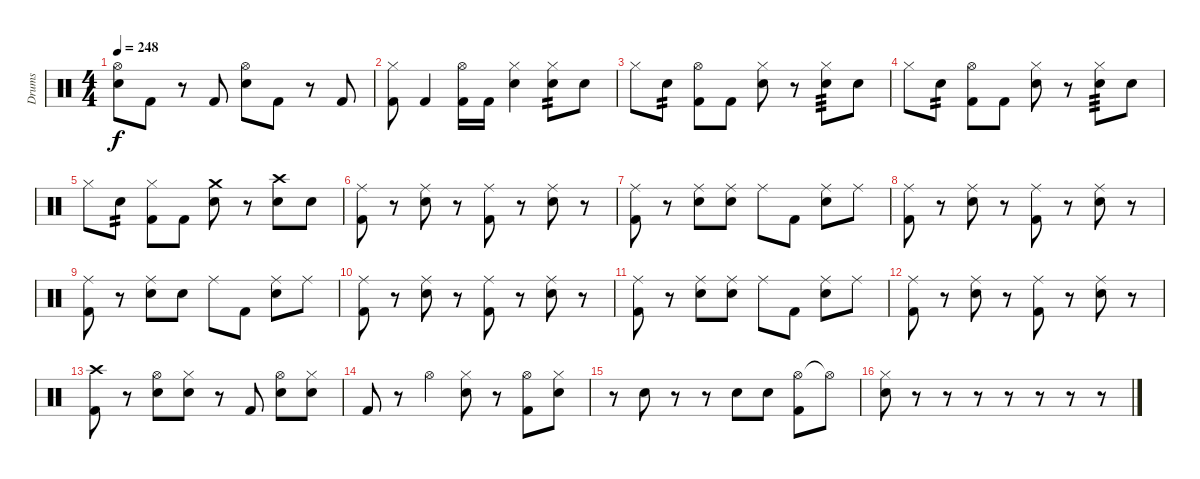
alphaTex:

\track ("Drums" "Drums") {instrument percussion}
\staff {score}
\articulation defaults
\ts (4 4)
\tempo 248
\clef neutral
\ks c
("Electric Snare (hit)" "Hi-Hat (open)").8{dy f} "Kick (hit) 2".8 r.8 "Kick (hit) 2".8 ("Electric Snare (hit)" "Hi-Hat (open)").8 "Kick (hit) 2".8 r.8 "Kick (hit) 2".8 |
("Hi-Hat (closed)" "Kick (hit) 2").8 "Kick (hit) 2".4 ("Hi-Hat (open)" "Kick (hit) 2").16 "Kick (hit) 2".16 ("Hi-Hat (closed)" "Electric Snare (hit)").4 ("Hi-Hat (closed)" "Electric Snare (hit)").8{tp 2} "Electric Snare (hit)".8 |
"Hi-Hat (closed)".8 "Electric Snare (hit)".8{tp 2} ("Hi-Hat (open)" "Kick (hit) 2").8 "Kick (hit) 2".8 ("Hi-Hat (closed)" "Electric Snare (hit)").8 r.8 ("Hi-Hat (closed)" "Electric Snare (hit)").8{tp 3} "Electric Snare (hit)".8 |
"Hi-Hat (closed)".8 "Electric Snare (hit)".8{tp 2} ("Hi-Hat (open)" "Kick (hit) 2").8 "Kick (hit) 2".8 ("Hi-Hat (closed)" "Electric Snare (hit)").8 r.8 ("Hi-Hat (closed)" "Electric Snare (hit)").8{tp 3} "Electric Snare (hit)".8 |
"Hi-Hat (closed)".8 "Electric Snare (hit)".8{tp 2} ("Hi-Hat (closed)" "Kick (hit) 2").8 "Kick (hit) 2".8 ("Crash medium (hit)" "Electric Snare (hit)").8 r.8 ("Crash high (hit)" "Electric Snare (hit)").8 "Electric Snare (hit)".8 |
("Ride (middle)" "Kick (hit) 2").8 r.8 ("Ride (middle)" "Electric Snare (hit)").8 r.8 ("Ride (middle)" "Kick (hit) 2").8 r.8 ("Ride (middle)" "Electric Snare (hit)").8 r.8 |
("Ride (middle)" "Kick (hit) 2").8 r.8 ("Ride (middle)" "Electric Snare (hit)").8 ("Ride (middle)" "Electric Snare (hit)").8 "Ride (middle)".8 "Kick (hit) 2".8 ("Ride (middle)" "Electric Snare (hit)").8 "Ride (middle)".8 |
("Ride (middle)" "Kick (hit) 2").8 r.8 ("Ride (middle)" "Electric Snare (hit)").8 r.8 ("Ride (middle)" "Kick (hit) 2").8 r.8 ("Ride (middle)" "Electric Snare (hit)").8 r.8 |
("Ride (middle)" "Kick (hit) 2").8 r.8 ("Ride (middle)" "Electric Snare (hit)").8 "Electric Snare (hit)".8 "Ride (middle)".8 "Kick (hit) 2".8 ("Ride (middle)" "Electric Snare (hit)").8 "Ride (middle)".8 |
("Ride (middle)" "Kick (hit) 2").8 r.8 ("Ride (middle)" "Electric Snare (hit)").8 r.8 ("Ride (middle)" "Kick (hit) 2").8 r.8 ("Ride (middle)" "Electric Snare (hit)").8 r.8 |
("Ride (middle)" "Kick (hit) 2").8 r.8 ("Ride (middle)" "Electric Snare (hit)").8 ("Ride (middle)" "Electric Snare (hit)").8 "Ride (middle)".8 "Kick (hit) 2".8 ("Ride (middle)" "Electric Snare (hit)").8 "Ride (middle)".8 |
("Ride (middle)" "Kick (hit) 2").8 r.8 ("Ride (middle)" "Electric Snare (hit)").8 r.8 ("Ride (middle)" "Kick (hit) 2").8 r.8 ("Ride (middle)" "Electric Snare (hit)").8 r.8 |
("Crash high (hit)" "Kick (hit) 2").8 r.8 ("Hi-Hat (open)" "Electric Snare (hit)").8 ("Hi-Hat (closed)" "Electric Snare (hit)").8 r.8 "Kick (hit) 2".8 ("Hi-Hat (open)" "Electric Snare (hit)").8 ("Hi-Hat (closed)" "Electric Snare (hit)").8 |
"Kick (hit) 2".8 r.8 "Hi-Hat (open)".4 ("Hi-Hat (closed)" "Electric Snare (hit)").8 r.8 ("Hi-Hat (open)" "Kick (hit) 2").8 ("Hi-Hat (closed)" "Electric Snare (hit)").8 |
r.8 "Electric Snare (hit)".8 r.8 r.8 "Electric Snare (hit)".8 "Electric Snare (hit)".8 ("Hi-Hat (open)" "Kick (hit) 2").8 "Hi-Hat (open)"{t}.8 |
("Hi-Hat (closed)" "Electric Snare (hit)").8 r.8 r.8 r.8 r.8 r.8 r.8 r.8
